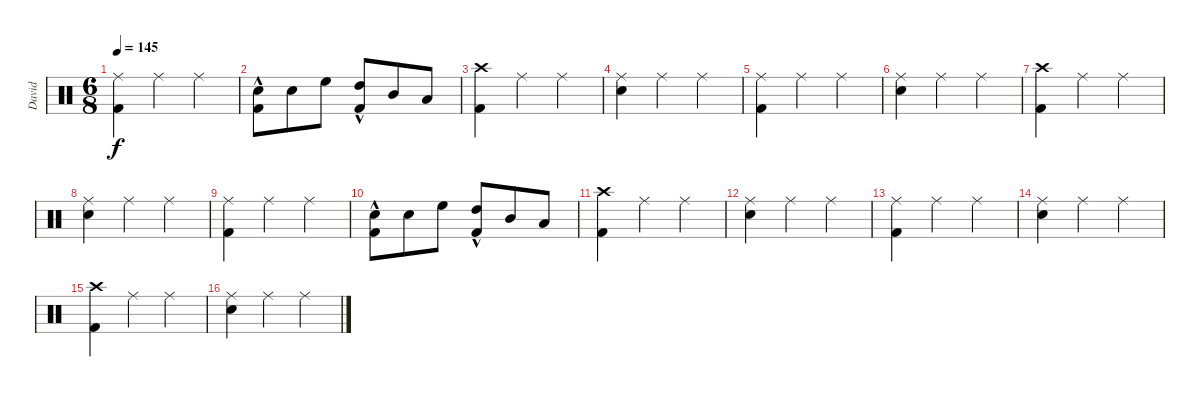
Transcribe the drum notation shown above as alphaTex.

\track ("David" "David") {instrument percussion}
\staff {score}
\articulation defaults
\ts (6 8)
\tempo 145
\clef neutral
\ks c
("Ride (middle)" "Kick (hit) 2").4{dy f} "Ride (middle)".4 "Ride (middle)".4 |
("Electric Snare (hit)" "Kick (hit) 2"{hac}).8 "Electric Snare (hit)".8 "High Floor Tom (hit)".8 ("High Tom (hit)" "Kick (hit) 2"{hac}).8 "Mid Tom (hit)".8 "Low Tom (hit)".8 |
("Crash high (hit)" "Kick (hit) 2").4 "Ride (middle)".4 "Ride (middle)".4 |
("Ride (middle)" "Electric Snare (hit)").4 "Ride (middle)".4 "Ride (middle)".4 |
("Ride (middle)" "Kick (hit) 2").4 "Ride (middle)".4 "Ride (middle)".4 |
("Ride (middle)" "Electric Snare (hit)").4 "Ride (middle)".4 "Ride (middle)".4 |
("Crash high (hit)" "Kick (hit) 2").4 "Ride (middle)".4 "Ride (middle)".4 |
("Ride (middle)" "Electric Snare (hit)").4 "Ride (middle)".4 "Ride (middle)".4 |
("Ride (middle)" "Kick (hit) 2").4 "Ride (middle)".4 "Ride (middle)".4 |
("Electric Snare (hit)" "Kick (hit) 2"{hac}).8 "Electric Snare (hit)".8 "High Floor Tom (hit)".8 ("High Tom (hit)" "Kick (hit) 2"{hac}).8 "Mid Tom (hit)".8 "Low Tom (hit)".8 |
("Crash high (hit)" "Kick (hit) 2").4 "Ride (middle)".4 "Ride (middle)".4 |
("Ride (middle)" "Electric Snare (hit)").4 "Ride (middle)".4 "Ride (middle)".4 |
("Ride (middle)" "Kick (hit) 2").4 "Ride (middle)".4 "Ride (middle)".4 |
("Ride (middle)" "Electric Snare (hit)").4 "Ride (middle)".4 "Ride (middle)".4 |
("Crash high (hit)" "Kick (hit) 2").4 "Ride (middle)".4 "Ride (middle)".4 |
("Ride (middle)" "Electric Snare (hit)").4 "Ride (middle)".4 "Ride (middle)".4
